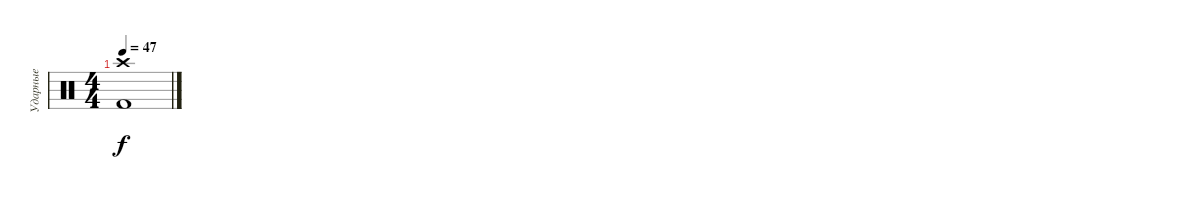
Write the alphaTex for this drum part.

\track ("Ударные" "Ударные") {instrument percussion}
\staff {score}
\articulation defaults
\ts (4 4)
\tempo 47
\clef neutral
\ks c
("Crash high (hit)" "Kick (hit) 2").1{dy f}
